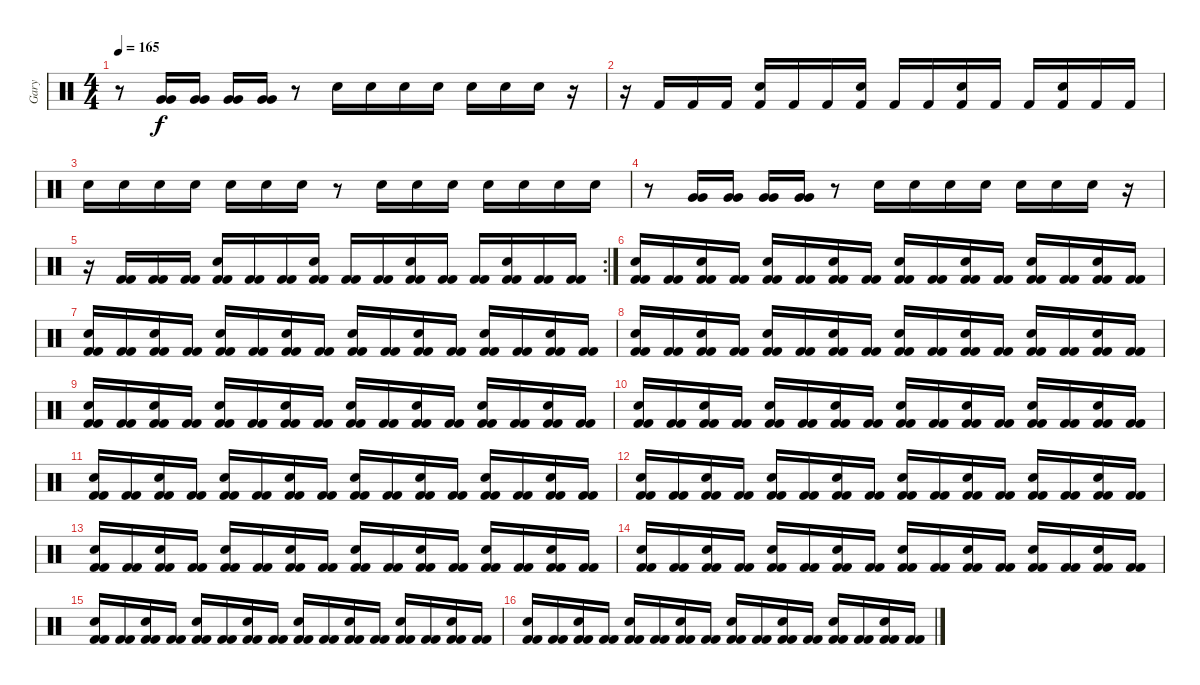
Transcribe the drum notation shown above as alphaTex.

\track ("Gary" "Gary") {instrument percussion}
\staff {score}
\articulation defaults
\ts (4 4)
\tempo 165
\clef neutral
\ks c
r.8{dy f} ("Very Low Tom (hit)" "Very Low Tom (hit)").16 ("Very Low Tom (hit)" "Very Low Tom (hit)").16 ("Very Low Tom (hit)" "Very Low Tom (hit)").16 ("Very Low Tom (hit)" "Very Low Tom (hit)").16 r.8 "Snare (hit) 2".16 "Snare (hit) 2".16 "Snare (hit) 2".16 "Snare (hit) 2".16 "Snare (hit) 2".16 "Snare (hit) 2".16 "Snare (hit) 2".16 r.16 |
r.16 "Kick (hit) 2".16 "Kick (hit) 2".16 "Kick (hit) 2".16 ("Snare (hit) 2" "Kick (hit) 2").16 "Kick (hit) 2".16 "Kick (hit) 2".16 ("Snare (hit) 2" "Kick (hit) 2").16 "Kick (hit) 2".16 "Kick (hit) 2".16 ("Snare (hit) 2" "Kick (hit) 2").16 "Kick (hit) 2".16 "Kick (hit) 2".16 ("Snare (hit) 2" "Kick (hit) 2").16 "Kick (hit) 2".16 "Kick (hit) 2".16 |
"Snare (hit) 2".16 "Snare (hit) 2".16 "Snare (hit) 2".16 "Snare (hit) 2".16 "Snare (hit) 2".16 "Snare (hit) 2".16 "Snare (hit) 2".16 r.8 "Snare (hit) 2".16 "Snare (hit) 2".16 "Snare (hit) 2".16 "Snare (hit) 2".16 "Snare (hit) 2".16 "Snare (hit) 2".16 "Snare (hit) 2".16 |
r.8 ("Very Low Tom (hit)" "Very Low Tom (hit)").16 ("Very Low Tom (hit)" "Very Low Tom (hit)").16 ("Very Low Tom (hit)" "Very Low Tom (hit)").16 ("Very Low Tom (hit)" "Very Low Tom (hit)").16 r.8 "Snare (hit) 2".16 "Snare (hit) 2".16 "Snare (hit) 2".16 "Snare (hit) 2".16 "Snare (hit) 2".16 "Snare (hit) 2".16 "Snare (hit) 2".16 r.16 |
\rc 2
r.16 ("Kick (hit) 2" "Kick (hit) 2").16 ("Kick (hit) 2" "Kick (hit) 2").16 ("Kick (hit) 2" "Kick (hit) 2").16 ("Kick (hit) 2" "Snare (hit) 2" "Kick (hit) 2").16 ("Kick (hit) 2" "Kick (hit) 2").16 ("Kick (hit) 2" "Kick (hit) 2").16 ("Kick (hit) 2" "Snare (hit) 2" "Kick (hit) 2").16 ("Kick (hit) 2" "Kick (hit) 2").16 ("Kick (hit) 2" "Kick (hit) 2").16 ("Kick (hit) 2" "Snare (hit) 2" "Kick (hit) 2").16 ("Kick (hit) 2" "Kick (hit) 2").16 ("Kick (hit) 2" "Kick (hit) 2").16 ("Kick (hit) 2" "Snare (hit) 2" "Kick (hit) 2").16 ("Kick (hit) 2" "Kick (hit) 2").16 ("Kick (hit) 2" "Kick (hit) 2").16 |
("Kick (hit) 2" "Snare (hit) 2" "Kick (hit) 2").16 ("Kick (hit) 2" "Kick (hit) 2").16 ("Kick (hit) 2" "Snare (hit) 2" "Kick (hit) 2").16 ("Kick (hit) 2" "Kick (hit) 2").16 ("Kick (hit) 2" "Snare (hit) 2" "Kick (hit) 2").16 ("Kick (hit) 2" "Kick (hit) 2").16 ("Kick (hit) 2" "Snare (hit) 2" "Kick (hit) 2").16 ("Kick (hit) 2" "Kick (hit) 2").16 ("Kick (hit) 2" "Snare (hit) 2" "Kick (hit) 2").16 ("Kick (hit) 2" "Kick (hit) 2").16 ("Kick (hit) 2" "Snare (hit) 2" "Kick (hit) 2").16 ("Kick (hit) 2" "Kick (hit) 2").16 ("Kick (hit) 2" "Snare (hit) 2" "Kick (hit) 2").16 ("Kick (hit) 2" "Kick (hit) 2").16 ("Kick (hit) 2" "Snare (hit) 2" "Kick (hit) 2").16 ("Kick (hit) 2" "Kick (hit) 2").16 |
("Kick (hit) 2" "Snare (hit) 2" "Kick (hit) 2").16 ("Kick (hit) 2" "Kick (hit) 2").16 ("Kick (hit) 2" "Snare (hit) 2" "Kick (hit) 2").16 ("Kick (hit) 2" "Kick (hit) 2").16 ("Kick (hit) 2" "Snare (hit) 2" "Kick (hit) 2").16 ("Kick (hit) 2" "Kick (hit) 2").16 ("Kick (hit) 2" "Snare (hit) 2" "Kick (hit) 2").16 ("Kick (hit) 2" "Kick (hit) 2").16 ("Kick (hit) 2" "Snare (hit) 2" "Kick (hit) 2").16 ("Kick (hit) 2" "Kick (hit) 2").16 ("Kick (hit) 2" "Snare (hit) 2" "Kick (hit) 2").16 ("Kick (hit) 2" "Kick (hit) 2").16 ("Kick (hit) 2" "Snare (hit) 2" "Kick (hit) 2").16 ("Kick (hit) 2" "Kick (hit) 2").16 ("Kick (hit) 2" "Snare (hit) 2" "Kick (hit) 2").16 ("Kick (hit) 2" "Kick (hit) 2").16 |
("Kick (hit) 2" "Snare (hit) 2" "Kick (hit) 2").16 ("Kick (hit) 2" "Kick (hit) 2").16 ("Kick (hit) 2" "Snare (hit) 2" "Kick (hit) 2").16 ("Kick (hit) 2" "Kick (hit) 2").16 ("Kick (hit) 2" "Snare (hit) 2" "Kick (hit) 2").16 ("Kick (hit) 2" "Kick (hit) 2").16 ("Kick (hit) 2" "Snare (hit) 2" "Kick (hit) 2").16 ("Kick (hit) 2" "Kick (hit) 2").16 ("Kick (hit) 2" "Snare (hit) 2" "Kick (hit) 2").16 ("Kick (hit) 2" "Kick (hit) 2").16 ("Kick (hit) 2" "Snare (hit) 2" "Kick (hit) 2").16 ("Kick (hit) 2" "Kick (hit) 2").16 ("Kick (hit) 2" "Snare (hit) 2" "Kick (hit) 2").16 ("Kick (hit) 2" "Kick (hit) 2").16 ("Kick (hit) 2" "Snare (hit) 2" "Kick (hit) 2").16 ("Kick (hit) 2" "Kick (hit) 2").16 |
("Kick (hit) 2" "Snare (hit) 2" "Kick (hit) 2").16 ("Kick (hit) 2" "Kick (hit) 2").16 ("Kick (hit) 2" "Snare (hit) 2" "Kick (hit) 2").16 ("Kick (hit) 2" "Kick (hit) 2").16 ("Kick (hit) 2" "Snare (hit) 2" "Kick (hit) 2").16 ("Kick (hit) 2" "Kick (hit) 2").16 ("Kick (hit) 2" "Snare (hit) 2" "Kick (hit) 2").16 ("Kick (hit) 2" "Kick (hit) 2").16 ("Kick (hit) 2" "Snare (hit) 2" "Kick (hit) 2").16 ("Kick (hit) 2" "Kick (hit) 2").16 ("Kick (hit) 2" "Snare (hit) 2" "Kick (hit) 2").16 ("Kick (hit) 2" "Kick (hit) 2").16 ("Kick (hit) 2" "Snare (hit) 2" "Kick (hit) 2").16 ("Kick (hit) 2" "Kick (hit) 2").16 ("Kick (hit) 2" "Snare (hit) 2" "Kick (hit) 2").16 ("Kick (hit) 2" "Kick (hit) 2").16 |
("Kick (hit) 2" "Snare (hit) 2" "Kick (hit) 2").16 ("Kick (hit) 2" "Kick (hit) 2").16 ("Kick (hit) 2" "Snare (hit) 2" "Kick (hit) 2").16 ("Kick (hit) 2" "Kick (hit) 2").16 ("Kick (hit) 2" "Snare (hit) 2" "Kick (hit) 2").16 ("Kick (hit) 2" "Kick (hit) 2").16 ("Kick (hit) 2" "Snare (hit) 2" "Kick (hit) 2").16 ("Kick (hit) 2" "Kick (hit) 2").16 ("Kick (hit) 2" "Snare (hit) 2" "Kick (hit) 2").16 ("Kick (hit) 2" "Kick (hit) 2").16 ("Kick (hit) 2" "Snare (hit) 2" "Kick (hit) 2").16 ("Kick (hit) 2" "Kick (hit) 2").16 ("Kick (hit) 2" "Snare (hit) 2" "Kick (hit) 2").16 ("Kick (hit) 2" "Kick (hit) 2").16 ("Kick (hit) 2" "Snare (hit) 2" "Kick (hit) 2").16 ("Kick (hit) 2" "Kick (hit) 2").16 |
("Kick (hit) 2" "Snare (hit) 2" "Kick (hit) 2").16 ("Kick (hit) 2" "Kick (hit) 2").16 ("Kick (hit) 2" "Snare (hit) 2" "Kick (hit) 2").16 ("Kick (hit) 2" "Kick (hit) 2").16 ("Kick (hit) 2" "Snare (hit) 2" "Kick (hit) 2").16 ("Kick (hit) 2" "Kick (hit) 2").16 ("Kick (hit) 2" "Snare (hit) 2" "Kick (hit) 2").16 ("Kick (hit) 2" "Kick (hit) 2").16 ("Kick (hit) 2" "Snare (hit) 2" "Kick (hit) 2").16 ("Kick (hit) 2" "Kick (hit) 2").16 ("Kick (hit) 2" "Snare (hit) 2" "Kick (hit) 2").16 ("Kick (hit) 2" "Kick (hit) 2").16 ("Kick (hit) 2" "Snare (hit) 2" "Kick (hit) 2").16 ("Kick (hit) 2" "Kick (hit) 2").16 ("Kick (hit) 2" "Snare (hit) 2" "Kick (hit) 2").16 ("Kick (hit) 2" "Kick (hit) 2").16 |
("Kick (hit) 2" "Snare (hit) 2" "Kick (hit) 2").16 ("Kick (hit) 2" "Kick (hit) 2").16 ("Kick (hit) 2" "Snare (hit) 2" "Kick (hit) 2").16 ("Kick (hit) 2" "Kick (hit) 2").16 ("Kick (hit) 2" "Snare (hit) 2" "Kick (hit) 2").16 ("Kick (hit) 2" "Kick (hit) 2").16 ("Kick (hit) 2" "Snare (hit) 2" "Kick (hit) 2").16 ("Kick (hit) 2" "Kick (hit) 2").16 ("Kick (hit) 2" "Snare (hit) 2" "Kick (hit) 2").16 ("Kick (hit) 2" "Kick (hit) 2").16 ("Kick (hit) 2" "Snare (hit) 2" "Kick (hit) 2").16 ("Kick (hit) 2" "Kick (hit) 2").16 ("Kick (hit) 2" "Snare (hit) 2" "Kick (hit) 2").16 ("Kick (hit) 2" "Kick (hit) 2").16 ("Kick (hit) 2" "Snare (hit) 2" "Kick (hit) 2").16 ("Kick (hit) 2" "Kick (hit) 2").16 |
("Kick (hit) 2" "Snare (hit) 2" "Kick (hit) 2").16 ("Kick (hit) 2" "Kick (hit) 2").16 ("Kick (hit) 2" "Snare (hit) 2" "Kick (hit) 2").16 ("Kick (hit) 2" "Kick (hit) 2").16 ("Kick (hit) 2" "Snare (hit) 2" "Kick (hit) 2").16 ("Kick (hit) 2" "Kick (hit) 2").16 ("Kick (hit) 2" "Snare (hit) 2" "Kick (hit) 2").16 ("Kick (hit) 2" "Kick (hit) 2").16 ("Kick (hit) 2" "Snare (hit) 2" "Kick (hit) 2").16 ("Kick (hit) 2" "Kick (hit) 2").16 ("Kick (hit) 2" "Snare (hit) 2" "Kick (hit) 2").16 ("Kick (hit) 2" "Kick (hit) 2").16 ("Kick (hit) 2" "Snare (hit) 2" "Kick (hit) 2").16 ("Kick (hit) 2" "Kick (hit) 2").16 ("Kick (hit) 2" "Snare (hit) 2" "Kick (hit) 2").16 ("Kick (hit) 2" "Kick (hit) 2").16 |
("Kick (hit) 2" "Snare (hit) 2" "Kick (hit) 2").16 ("Kick (hit) 2" "Kick (hit) 2").16 ("Kick (hit) 2" "Snare (hit) 2" "Kick (hit) 2").16 ("Kick (hit) 2" "Kick (hit) 2").16 ("Kick (hit) 2" "Snare (hit) 2" "Kick (hit) 2").16 ("Kick (hit) 2" "Kick (hit) 2").16 ("Kick (hit) 2" "Snare (hit) 2" "Kick (hit) 2").16 ("Kick (hit) 2" "Kick (hit) 2").16 ("Kick (hit) 2" "Snare (hit) 2" "Kick (hit) 2").16 ("Kick (hit) 2" "Kick (hit) 2").16 ("Kick (hit) 2" "Snare (hit) 2" "Kick (hit) 2").16 ("Kick (hit) 2" "Kick (hit) 2").16 ("Kick (hit) 2" "Snare (hit) 2" "Kick (hit) 2").16 ("Kick (hit) 2" "Kick (hit) 2").16 ("Kick (hit) 2" "Snare (hit) 2" "Kick (hit) 2").16 ("Kick (hit) 2" "Kick (hit) 2").16 |
("Kick (hit) 2" "Snare (hit) 2" "Kick (hit) 2").16 ("Kick (hit) 2" "Kick (hit) 2").16 ("Kick (hit) 2" "Snare (hit) 2" "Kick (hit) 2").16 ("Kick (hit) 2" "Kick (hit) 2").16 ("Kick (hit) 2" "Snare (hit) 2" "Kick (hit) 2").16 ("Kick (hit) 2" "Kick (hit) 2").16 ("Kick (hit) 2" "Snare (hit) 2" "Kick (hit) 2").16 ("Kick (hit) 2" "Kick (hit) 2").16 ("Kick (hit) 2" "Snare (hit) 2" "Kick (hit) 2").16 ("Kick (hit) 2" "Kick (hit) 2").16 ("Kick (hit) 2" "Snare (hit) 2" "Kick (hit) 2").16 ("Kick (hit) 2" "Kick (hit) 2").16 ("Kick (hit) 2" "Snare (hit) 2" "Kick (hit) 2").16 ("Kick (hit) 2" "Kick (hit) 2").16 ("Kick (hit) 2" "Snare (hit) 2" "Kick (hit) 2").16 ("Kick (hit) 2" "Kick (hit) 2").16 |
("Kick (hit) 2" "Snare (hit) 2" "Kick (hit) 2").16 ("Kick (hit) 2" "Kick (hit) 2").16 ("Kick (hit) 2" "Snare (hit) 2" "Kick (hit) 2").16 ("Kick (hit) 2" "Kick (hit) 2").16 ("Kick (hit) 2" "Snare (hit) 2" "Kick (hit) 2").16 ("Kick (hit) 2" "Kick (hit) 2").16 ("Kick (hit) 2" "Snare (hit) 2" "Kick (hit) 2").16 ("Kick (hit) 2" "Kick (hit) 2").16 ("Kick (hit) 2" "Snare (hit) 2" "Kick (hit) 2").16 ("Kick (hit) 2" "Kick (hit) 2").16 ("Kick (hit) 2" "Snare (hit) 2" "Kick (hit) 2").16 ("Kick (hit) 2" "Kick (hit) 2").16 ("Kick (hit) 2" "Snare (hit) 2" "Kick (hit) 2").16 ("Kick (hit) 2" "Kick (hit) 2").16 ("Kick (hit) 2" "Snare (hit) 2" "Kick (hit) 2").16 ("Kick (hit) 2" "Kick (hit) 2").16
